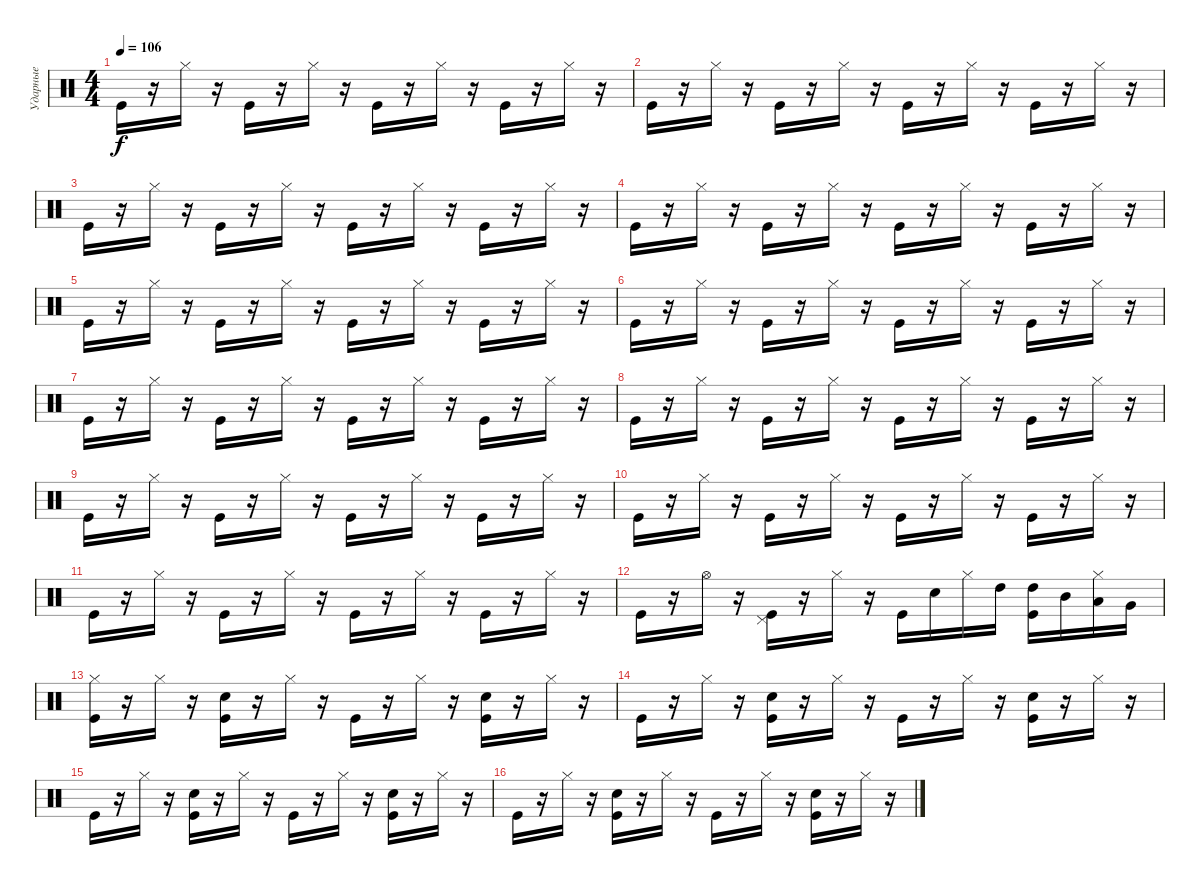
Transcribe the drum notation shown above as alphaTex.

\track ("Ударные" "Ударные") {instrument percussion}
\staff {score}
\articulation defaults
\ts (4 4)
\tempo 106
\clef neutral
\ks c "Kick (hit)".16{dy f}
r.16 "Hi-Hat (closed)".16 r.16 "Kick (hit)".16 r.16 "Hi-Hat (closed)".16 r.16 "Kick (hit)".16 r.16 "Hi-Hat (closed)".16 r.16 "Kick (hit)".16 r.16 "Hi-Hat (closed)".16 r.16 |
"Kick (hit)".16 r.16 "Hi-Hat (closed)".16 r.16 "Kick (hit)".16 r.16 "Hi-Hat (closed)".16 r.16 "Kick (hit)".16 r.16 "Hi-Hat (closed)".16 r.16 "Kick (hit)".16 r.16 "Hi-Hat (closed)".16 r.16 |
"Kick (hit)".16 r.16 "Hi-Hat (closed)".16 r.16 "Kick (hit)".16 r.16 "Hi-Hat (closed)".16 r.16 "Kick (hit)".16 r.16 "Hi-Hat (closed)".16 r.16 "Kick (hit)".16 r.16 "Hi-Hat (closed)".16 r.16 |
"Kick (hit)".16 r.16 "Hi-Hat (closed)".16 r.16 "Kick (hit)".16 r.16 "Hi-Hat (closed)".16 r.16 "Kick (hit)".16 r.16 "Hi-Hat (closed)".16 r.16 "Kick (hit)".16 r.16 "Hi-Hat (closed)".16 r.16 |
"Kick (hit)".16 r.16 "Hi-Hat (closed)".16 r.16 "Kick (hit)".16 r.16 "Hi-Hat (closed)".16 r.16 "Kick (hit)".16 r.16 "Hi-Hat (closed)".16 r.16 "Kick (hit)".16 r.16 "Hi-Hat (closed)".16 r.16 |
"Kick (hit)".16 r.16 "Hi-Hat (closed)".16 r.16 "Kick (hit)".16 r.16 "Hi-Hat (closed)".16 r.16 "Kick (hit)".16 r.16 "Hi-Hat (closed)".16 r.16 "Kick (hit)".16 r.16 "Hi-Hat (closed)".16 r.16 |
"Kick (hit)".16 r.16 "Hi-Hat (closed)".16 r.16 "Kick (hit)".16 r.16 "Hi-Hat (closed)".16 r.16 "Kick (hit)".16 r.16 "Hi-Hat (closed)".16 r.16 "Kick (hit)".16 r.16 "Hi-Hat (closed)".16 r.16 |
"Kick (hit)".16 r.16 "Hi-Hat (closed)".16 r.16 "Kick (hit)".16 r.16 "Hi-Hat (closed)".16 r.16 "Kick (hit)".16 r.16 "Hi-Hat (closed)".16 r.16 "Kick (hit)".16 r.16 "Hi-Hat (closed)".16 r.16 |
"Kick (hit)".16 r.16 "Hi-Hat (closed)".16 r.16 "Kick (hit)".16 r.16 "Hi-Hat (closed)".16 r.16 "Kick (hit)".16 r.16 "Hi-Hat (closed)".16 r.16 "Kick (hit)".16 r.16 "Hi-Hat (closed)".16 r.16 |
"Kick (hit)".16 r.16 "Hi-Hat (closed)".16 r.16 "Kick (hit)".16 r.16 "Hi-Hat (closed)".16 r.16 "Kick (hit)".16 r.16 "Hi-Hat (closed)".16 r.16 "Kick (hit)".16 r.16 "Hi-Hat (closed)".16 r.16 |
"Kick (hit)".16 r.16 "Hi-Hat (closed)".16 r.16 "Kick (hit)".16 r.16 "Hi-Hat (closed)".16 r.16 "Kick (hit)".16 r.16 "Hi-Hat (closed)".16 r.16 "Kick (hit)".16 r.16 "Hi-Hat (closed)".16 r.16 |
"Kick (hit)".16 r.16 "Hi-Hat (open)".16 r.16 ("Pedal Hi-Hat (hit)" "Kick (hit)").16 r.16 "Hi-Hat (closed)".16 r.16 "Kick (hit)".16 "Snare (hit) 2".16 "Hi-Hat (closed)".16 "High Tom (hit)".16 ("High Tom (hit)" "Kick (hit)").16 "Mid Tom (hit)".16 ("Low Tom (hit)" "Hi-Hat (closed)").16 "Very Low Tom (hit)".16 |
("Kick (hit)" "Hi-Hat (closed)").16 r.16 "Hi-Hat (closed)".16 r.16 ("Snare (hit) 2" "Kick (hit)").16 r.16 "Hi-Hat (closed)".16 r.16 "Kick (hit)".16 r.16 "Hi-Hat (closed)".16 r.16 ("Snare (hit) 2" "Kick (hit)").16 r.16 "Hi-Hat (closed)".16 r.16 |
"Kick (hit)".16 r.16 "Hi-Hat (closed)".16 r.16 ("Snare (hit) 2" "Kick (hit)").16 r.16 "Hi-Hat (closed)".16 r.16 "Kick (hit)".16 r.16 "Hi-Hat (closed)".16 r.16 ("Snare (hit) 2" "Kick (hit)").16 r.16 "Hi-Hat (closed)".16 r.16 |
"Kick (hit)".16 r.16 "Hi-Hat (closed)".16 r.16 ("Snare (hit) 2" "Kick (hit)").16 r.16 "Hi-Hat (closed)".16 r.16 "Kick (hit)".16 r.16 "Hi-Hat (closed)".16 r.16 ("Snare (hit) 2" "Kick (hit)").16 r.16 "Hi-Hat (closed)".16 r.16 |
"Kick (hit)".16 r.16 "Hi-Hat (closed)".16 r.16 ("Snare (hit) 2" "Kick (hit)").16 r.16 "Hi-Hat (closed)".16 r.16 "Kick (hit)".16 r.16 "Hi-Hat (closed)".16 r.16 ("Snare (hit) 2" "Kick (hit)").16 r.16 "Hi-Hat (closed)".16 r.16
